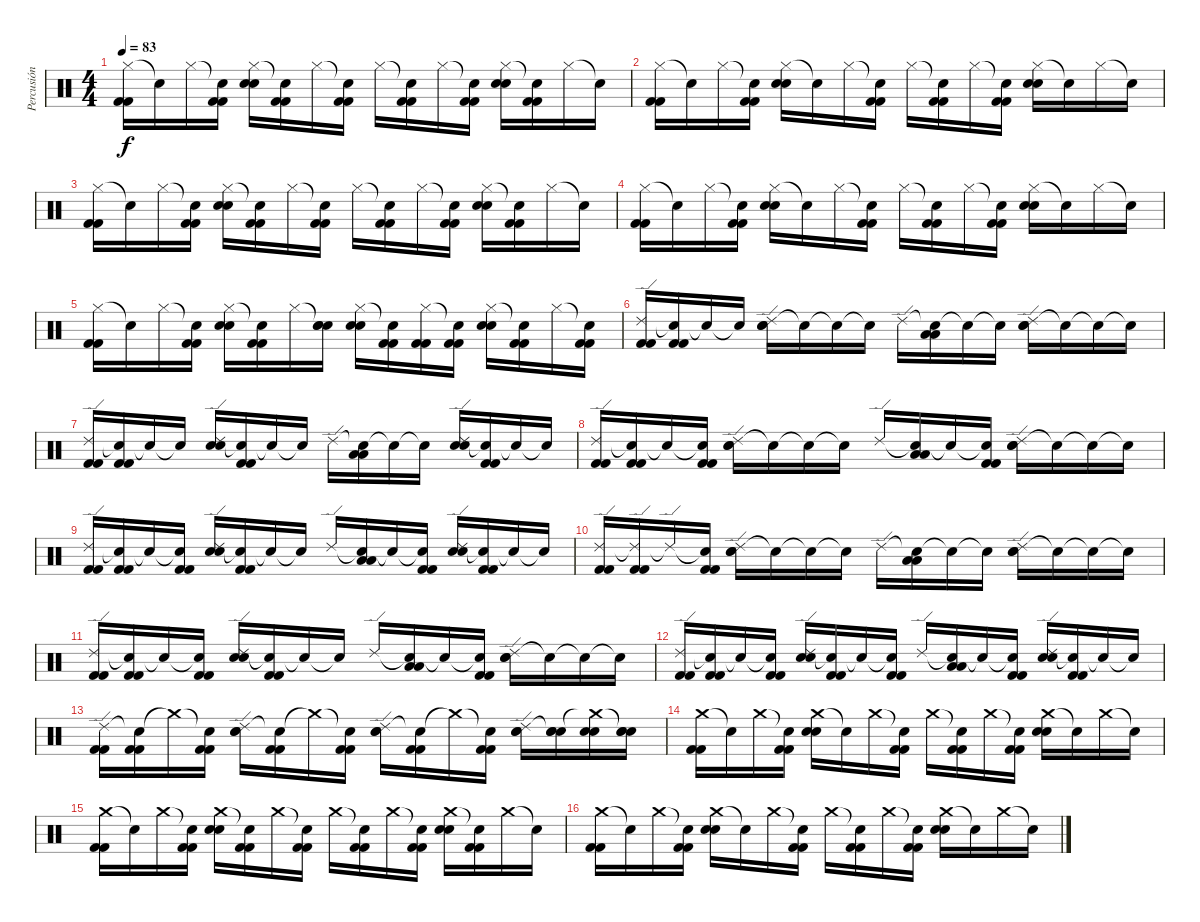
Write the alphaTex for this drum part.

\track ("Percusión" "Percusión") {instrument percussion}
\staff {score}
\articulation defaults
\ts (4 4)
\tempo 83
\clef neutral
\ks c
("Hi-Hat (closed)" "Kick (hit) 2" "Kick (hit) 2").16{dy f} "Snare (hit)"{t}.16 "Hi-Hat (closed)".16 ("Snare (hit)"{t} "Kick (hit) 2" "Kick (hit) 2").16 ("Hi-Hat (closed)" "Electric Snare (hit)" "Electric Snare (hit)").16 ("Snare (hit)"{t} "Kick (hit) 2" "Kick (hit) 2").16 "Hi-Hat (closed)".16 ("Snare (hit)"{t} "Kick (hit) 2" "Kick (hit) 2").16 "Hi-Hat (closed)".16 ("Snare (hit)"{t} "Kick (hit) 2" "Kick (hit) 2").16 "Hi-Hat (closed)".16 ("Snare (hit)"{t} "Kick (hit) 2" "Kick (hit) 2").16 ("Hi-Hat (closed)" "Electric Snare (hit)" "Electric Snare (hit)").16 ("Snare (hit)"{t} "Kick (hit) 2" "Kick (hit) 2").16 "Hi-Hat (closed)".16 "Snare (hit)"{t}.16 |
("Hi-Hat (closed)" "Kick (hit) 2" "Kick (hit) 2").16 "Snare (hit)"{t}.16 "Hi-Hat (closed)".16 ("Snare (hit)"{t} "Kick (hit) 2" "Kick (hit) 2").16 ("Hi-Hat (closed)" "Electric Snare (hit)" "Electric Snare (hit)").16 "Snare (hit)"{t}.16 "Hi-Hat (closed)".16 ("Snare (hit)"{t} "Kick (hit) 2" "Kick (hit) 2").16 "Hi-Hat (closed)".16 ("Snare (hit)"{t} "Kick (hit) 2" "Kick (hit) 2").16 "Hi-Hat (closed)".16 ("Snare (hit)"{t} "Kick (hit) 2" "Kick (hit) 2").16 ("Hi-Hat (closed)" "Electric Snare (hit)" "Electric Snare (hit)").16 "Snare (hit)"{t}.16 "Hi-Hat (closed)".16 "Snare (hit)"{t}.16 |
("Hi-Hat (closed)" "Kick (hit) 2" "Kick (hit) 2").16 "Snare (hit)"{t}.16 "Hi-Hat (closed)".16 ("Snare (hit)"{t} "Kick (hit) 2" "Kick (hit) 2").16 ("Hi-Hat (closed)" "Electric Snare (hit)" "Electric Snare (hit)").16 ("Snare (hit)"{t} "Kick (hit) 2" "Kick (hit) 2").16 "Hi-Hat (closed)".16 ("Snare (hit)"{t} "Kick (hit) 2" "Kick (hit) 2").16 "Hi-Hat (closed)".16 ("Snare (hit)"{t} "Kick (hit) 2" "Kick (hit) 2").16 "Hi-Hat (closed)".16 ("Snare (hit)"{t} "Kick (hit) 2" "Kick (hit) 2").16 ("Hi-Hat (closed)" "Electric Snare (hit)" "Electric Snare (hit)").16 ("Snare (hit)"{t} "Kick (hit) 2" "Kick (hit) 2").16 "Hi-Hat (closed)".16 "Snare (hit)"{t}.16 |
("Hi-Hat (closed)" "Kick (hit) 2" "Kick (hit) 2").16 "Snare (hit)"{t}.16 "Hi-Hat (closed)".16 ("Snare (hit)"{t} "Kick (hit) 2" "Kick (hit) 2").16 ("Hi-Hat (closed)" "Electric Snare (hit)" "Electric Snare (hit)").16 "Snare (hit)"{t}.16 "Hi-Hat (closed)".16 ("Snare (hit)"{t} "Kick (hit) 2" "Kick (hit) 2").16 "Hi-Hat (closed)".16 ("Snare (hit)"{t} "Kick (hit) 2" "Kick (hit) 2").16 "Hi-Hat (closed)".16 ("Snare (hit)"{t} "Kick (hit) 2" "Kick (hit) 2").16 ("Hi-Hat (closed)" "Electric Snare (hit)" "Electric Snare (hit)").16 "Snare (hit)"{t}.16 "Hi-Hat (closed)".16 "Snare (hit)"{t}.16 |
("Hi-Hat (closed)" "Kick (hit) 2" "Kick (hit) 2").16 "Snare (hit)"{t}.16 "Hi-Hat (closed)".16 ("Snare (hit)"{t} "Kick (hit) 2" "Kick (hit) 2").16 ("Hi-Hat (closed)" "Electric Snare (hit)" "Electric Snare (hit)").16 ("Snare (hit)"{t} "Kick (hit) 2" "Kick (hit) 2").16 "Hi-Hat (closed)".16 ("Snare (hit)"{t} "Electric Snare (hit)" "Electric Snare (hit)").16 ("Hi-Hat (closed)" "Electric Snare (hit)" "Electric Snare (hit)").16 ("Snare (hit)"{t} "Kick (hit) 2" "Kick (hit) 2").16 ("Hi-Hat (closed)" "Kick (hit) 2" "Kick (hit) 2").16 ("Snare (hit)"{t} "Kick (hit) 2" "Kick (hit) 2").16 ("Hi-Hat (closed)" "Electric Snare (hit)" "Electric Snare (hit)").16 ("Snare (hit)"{t} "Kick (hit) 2" "Kick (hit) 2").16 "Hi-Hat (closed)".16 ("Snare (hit)"{t} "Kick (hit) 2" "Kick (hit) 2").16 |
("Ride (edge) 2" "Kick (hit) 2" "Kick (hit) 2").16 ("Snare (hit)"{t} "Kick (hit) 2" "Kick (hit) 2").16 "Snare (hit)"{t}.16 "Snare (hit)"{t}.16 ("Ride (edge) 2" "Electric Snare (hit)" "Electric Snare (hit)").16 "Snare (hit)"{t}.16 "Snare (hit)"{t}.16 "Snare (hit)"{t}.16 "Ride (edge) 2".16 ("Snare (hit)"{t} "Low Tom (hit)" "Low Tom (hit)").16 "Snare (hit)"{t}.16 "Snare (hit)"{t}.16 ("Ride (edge) 2" "Electric Snare (hit)" "Electric Snare (hit)").16 "Snare (hit)"{t}.16 "Snare (hit)"{t}.16 "Snare (hit)"{t}.16 |
("Ride (edge) 2" "Kick (hit) 2" "Kick (hit) 2").16 ("Snare (hit)"{t} "Kick (hit) 2" "Kick (hit) 2").16 "Snare (hit)"{t}.16 "Snare (hit)"{t}.16 ("Ride (edge) 2" "Electric Snare (hit)" "Electric Snare (hit)").16 ("Snare (hit)"{t} "Kick (hit) 2" "Kick (hit) 2").16 "Snare (hit)"{t}.16 "Snare (hit)"{t}.16 "Ride (edge) 2".16 ("Snare (hit)"{t} "Low Tom (hit)" "Low Tom (hit)").16 "Snare (hit)"{t}.16 "Snare (hit)"{t}.16 ("Ride (edge) 2" "Electric Snare (hit)" "Electric Snare (hit)").16 ("Snare (hit)"{t} "Kick (hit) 2" "Kick (hit) 2").16 "Snare (hit)"{t}.16 "Snare (hit)"{t}.16 |
("Ride (edge) 2" "Kick (hit) 2" "Kick (hit) 2").16 ("Snare (hit)"{t} "Kick (hit) 2" "Kick (hit) 2").16 "Snare (hit)"{t}.16 ("Snare (hit)"{t} "Kick (hit) 2" "Kick (hit) 2").16 ("Ride (edge) 2" "Electric Snare (hit)" "Electric Snare (hit)").16 "Snare (hit)"{t}.16 "Snare (hit)"{t}.16 "Snare (hit)"{t}.16 "Ride (edge) 2".16 ("Snare (hit)"{t} "Low Tom (hit)" "Low Tom (hit)").16 "Snare (hit)"{t}.16 ("Snare (hit)"{t} "Kick (hit) 2" "Kick (hit) 2").16 ("Ride (edge) 2" "Electric Snare (hit)" "Electric Snare (hit)").16 "Snare (hit)"{t}.16 "Snare (hit)"{t}.16 "Snare (hit)"{t}.16 |
("Ride (edge) 2" "Kick (hit) 2" "Kick (hit) 2").16 ("Snare (hit)"{t} "Kick (hit) 2" "Kick (hit) 2").16 "Snare (hit)"{t}.16 ("Snare (hit)"{t} "Kick (hit) 2" "Kick (hit) 2").16 ("Ride (edge) 2" "Electric Snare (hit)" "Electric Snare (hit)").16 ("Snare (hit)"{t} "Kick (hit) 2" "Kick (hit) 2").16 "Snare (hit)"{t}.16 "Snare (hit)"{t}.16 "Ride (edge) 2".16 ("Snare (hit)"{t} "Low Tom (hit)" "Low Tom (hit)").16 "Snare (hit)"{t}.16 ("Snare (hit)"{t} "Kick (hit) 2" "Kick (hit) 2").16 ("Ride (edge) 2" "Electric Snare (hit)" "Electric Snare (hit)").16 ("Snare (hit)"{t} "Kick (hit) 2" "Kick (hit) 2").16 "Snare (hit)"{t}.16 "Snare (hit)"{t}.16 |
("Ride (edge) 2" "Kick (hit) 2" "Kick (hit) 2").16 ("Ride (edge) 2"{t} "Kick (hit) 2" "Kick (hit) 2").16 "Ride (edge) 2"{t}.16 ("Snare (hit)"{t} "Kick (hit) 2" "Kick (hit) 2").16 ("Ride (edge) 2" "Electric Snare (hit)" "Electric Snare (hit)").16 "Snare (hit)"{t}.16 "Snare (hit)"{t}.16 "Snare (hit)"{t}.16 "Ride (edge) 2".16 ("Snare (hit)"{t} "Low Tom (hit)" "Low Tom (hit)").16 "Snare (hit)"{t}.16 "Snare (hit)"{t}.16 ("Ride (edge) 2" "Electric Snare (hit)" "Electric Snare (hit)").16 "Snare (hit)"{t}.16 "Snare (hit)"{t}.16 "Snare (hit)"{t}.16 |
("Ride (edge) 2" "Kick (hit) 2" "Kick (hit) 2").16 ("Snare (hit)"{t} "Kick (hit) 2" "Kick (hit) 2").16 "Snare (hit)"{t}.16 ("Snare (hit)"{t} "Kick (hit) 2" "Kick (hit) 2").16 ("Ride (edge) 2" "Electric Snare (hit)" "Electric Snare (hit)").16 ("Snare (hit)"{t} "Kick (hit) 2" "Kick (hit) 2").16 "Snare (hit)"{t}.16 "Snare (hit)"{t}.16 "Ride (edge) 2".16 ("Snare (hit)"{t} "Low Tom (hit)" "Low Tom (hit)").16 "Snare (hit)"{t}.16 ("Snare (hit)"{t} "Kick (hit) 2" "Kick (hit) 2").16 ("Ride (edge) 2" "Electric Snare (hit)" "Electric Snare (hit)").16 "Snare (hit)"{t}.16 "Snare (hit)"{t}.16 "Snare (hit)"{t}.16 |
("Ride (edge) 2" "Kick (hit) 2" "Kick (hit) 2").16 ("Snare (hit)"{t} "Kick (hit) 2" "Kick (hit) 2").16 "Snare (hit)"{t}.16 ("Snare (hit)"{t} "Kick (hit) 2" "Kick (hit) 2").16 ("Ride (edge) 2" "Electric Snare (hit)" "Electric Snare (hit)").16 ("Snare (hit)"{t} "Kick (hit) 2" "Kick (hit) 2").16 "Snare (hit)"{t}.16 ("Snare (hit)"{t} "Kick (hit) 2" "Kick (hit) 2").16 "Ride (edge) 2".16 ("Snare (hit)"{t} "Low Tom (hit)" "Low Tom (hit)").16 "Snare (hit)"{t}.16 ("Snare (hit)"{t} "Kick (hit) 2" "Kick (hit) 2").16 ("Ride (edge) 2" "Electric Snare (hit)" "Electric Snare (hit)").16 ("Snare (hit)"{t} "Kick (hit) 2" "Kick (hit) 2").16 "Snare (hit)"{t}.16 "Snare (hit)"{t}.16 |
("Ride (edge) 2" "Kick (hit) 2" "Kick (hit) 2").16 ("Snare (hit)"{t} "Kick (hit) 2" "Kick (hit) 2").16 "Crash medium (hit)"{t}.16 ("Snare (hit)"{t} "Kick (hit) 2" "Kick (hit) 2").16 ("Ride (edge) 2" "Electric Snare (hit)" "Electric Snare (hit)").16 ("Snare (hit)"{t} "Kick (hit) 2" "Kick (hit) 2").16 "Crash medium (hit)"{t}.16 ("Snare (hit)"{t} "Kick (hit) 2" "Kick (hit) 2").16 ("Ride (edge) 2" "Electric Snare (hit)" "Electric Snare (hit)").16 ("Snare (hit)"{t} "Kick (hit) 2" "Kick (hit) 2").16 "Crash medium (hit)"{t}.16 ("Snare (hit)"{t} "Kick (hit) 2" "Kick (hit) 2").16 ("Ride (edge) 2" "Electric Snare (hit)" "Electric Snare (hit)").16 ("Snare (hit)"{t} "Electric Snare (hit)" "Electric Snare (hit)").16 ("Crash medium (hit)"{t} "Electric Snare (hit)" "Electric Snare (hit)").16 ("Snare (hit)"{t} "Electric Snare (hit)" "Electric Snare (hit)").16 |
("Crash medium (hit)" "Kick (hit) 2" "Kick (hit) 2").16 "Snare (hit)"{t}.16 "Crash medium (hit)".16 ("Snare (hit)"{t} "Kick (hit) 2" "Kick (hit) 2").16 ("Crash medium (hit)" "Electric Snare (hit)" "Electric Snare (hit)").16 "Snare (hit)"{t}.16 "Crash medium (hit)".16 ("Snare (hit)"{t} "Kick (hit) 2" "Kick (hit) 2").16 "Crash medium (hit)".16 ("Snare (hit)"{t} "Kick (hit) 2" "Kick (hit) 2").16 "Crash medium (hit)".16 ("Snare (hit)"{t} "Kick (hit) 2" "Kick (hit) 2").16 ("Crash medium (hit)" "Electric Snare (hit)" "Electric Snare (hit)").16 "Snare (hit)"{t}.16 "Crash medium (hit)".16 "Snare (hit)"{t}.16 |
("Crash medium (hit)" "Kick (hit) 2" "Kick (hit) 2").16 "Snare (hit)"{t}.16 "Crash medium (hit)".16 ("Snare (hit)"{t} "Kick (hit) 2" "Kick (hit) 2").16 ("Crash medium (hit)" "Electric Snare (hit)" "Electric Snare (hit)").16 ("Snare (hit)"{t} "Kick (hit) 2" "Kick (hit) 2").16 "Crash medium (hit)".16 ("Snare (hit)"{t} "Kick (hit) 2" "Kick (hit) 2").16 "Crash medium (hit)".16 ("Snare (hit)"{t} "Kick (hit) 2" "Kick (hit) 2").16 "Crash medium (hit)".16 ("Snare (hit)"{t} "Kick (hit) 2" "Kick (hit) 2").16 ("Crash medium (hit)" "Electric Snare (hit)" "Electric Snare (hit)").16 ("Snare (hit)"{t} "Kick (hit) 2" "Kick (hit) 2").16 "Crash medium (hit)".16 "Snare (hit)"{t}.16 |
("Crash medium (hit)" "Kick (hit) 2" "Kick (hit) 2").16 "Snare (hit)"{t}.16 "Crash medium (hit)".16 ("Snare (hit)"{t} "Kick (hit) 2" "Kick (hit) 2").16 ("Crash medium (hit)" "Electric Snare (hit)" "Electric Snare (hit)").16 "Snare (hit)"{t}.16 "Crash medium (hit)".16 ("Snare (hit)"{t} "Kick (hit) 2" "Kick (hit) 2").16 "Crash medium (hit)".16 ("Snare (hit)"{t} "Kick (hit) 2" "Kick (hit) 2").16 "Crash medium (hit)".16 ("Snare (hit)"{t} "Kick (hit) 2" "Kick (hit) 2").16 ("Crash medium (hit)" "Electric Snare (hit)" "Electric Snare (hit)").16 "Snare (hit)"{t}.16 "Crash medium (hit)".16 "Snare (hit)"{t}.16
